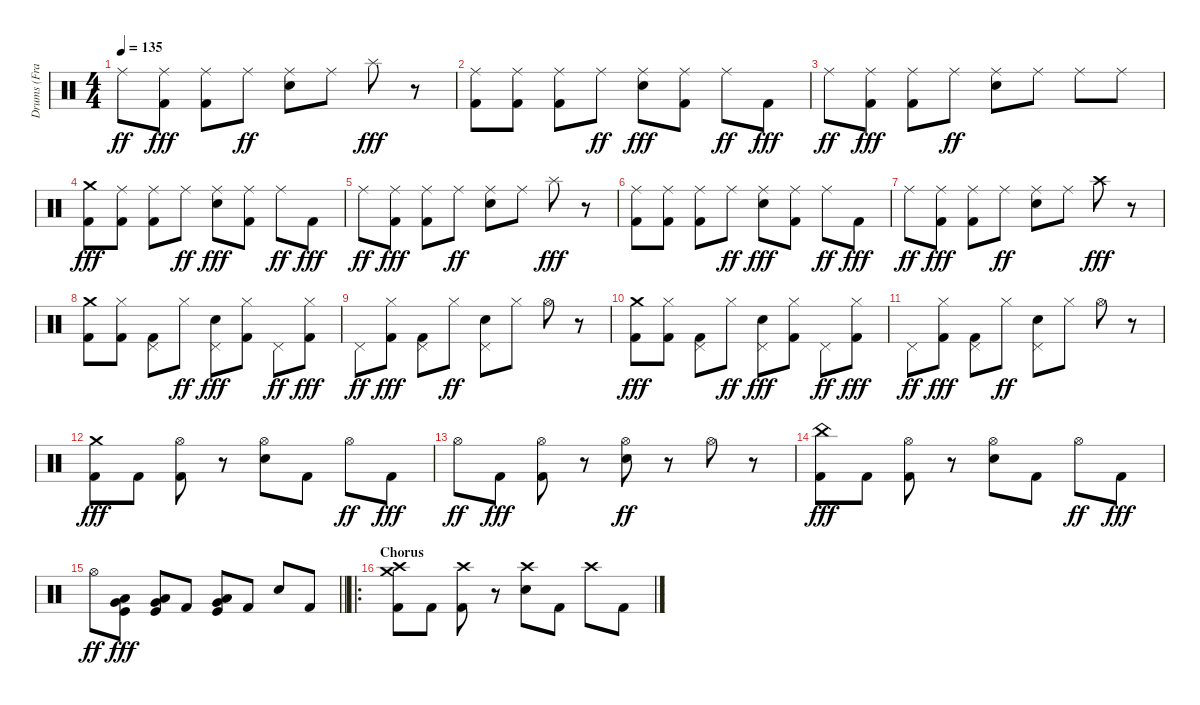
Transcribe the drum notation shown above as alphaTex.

\track ("Drums (Franky)" "Drums (Fra") {instrument percussion}
\staff {score}
\articulation defaults
\ts (4 4)
\tempo 135
\clef neutral
\ks c "Ride (middle)".8{dy ff}
("Ride (middle)" "Kick (hit) 2").8{dy fff} ("Ride (middle)" "Kick (hit) 2").8 "Ride (middle)".8{dy ff} ("Ride (middle)" "Electric Snare (hit)").8 "Ride (middle)".8 "Splash (hit)".8{dy fff} r.8 |
("Ride (middle)" "Kick (hit) 2").8 ("Ride (middle)" "Kick (hit) 2").8 ("Ride (middle)" "Kick (hit) 2").8 "Ride (middle)".8{dy ff} ("Ride (middle)" "Electric Snare (hit)").8{dy fff} ("Ride (middle)" "Kick (hit) 2").8 "Ride (middle)".8{dy ff} "Kick (hit) 2".8{dy fff} |
"Ride (middle)".8{dy ff} ("Ride (middle)" "Kick (hit) 2").8{dy fff} ("Ride (middle)" "Kick (hit) 2").8 "Ride (middle)".8{dy ff} ("Ride (middle)" "Electric Snare (hit)").8 "Ride (middle)".8 "Ride (middle)".8 "Ride (middle)".8 |
("Crash medium (hit)" "Kick (hit) 2").8{dy fff} ("Ride (middle)" "Kick (hit) 2").8 ("Ride (middle)" "Kick (hit) 2").8 "Ride (middle)".8{dy ff} ("Ride (middle)" "Electric Snare (hit)").8{dy fff} ("Ride (middle)" "Kick (hit) 2").8 "Ride (middle)".8{dy ff} "Kick (hit) 2".8{dy fff} |
"Ride (middle)".8{dy ff} ("Ride (middle)" "Kick (hit) 2").8{dy fff} ("Ride (middle)" "Kick (hit) 2").8 "Ride (middle)".8{dy ff} ("Ride (middle)" "Electric Snare (hit)").8 "Ride (middle)".8 "Splash (hit)".8{dy fff} r.8 |
("Ride (middle)" "Kick (hit) 2").8 ("Ride (middle)" "Kick (hit) 2").8 ("Ride (middle)" "Kick (hit) 2").8 "Ride (middle)".8{dy ff} ("Ride (middle)" "Electric Snare (hit)").8{dy fff} ("Ride (middle)" "Kick (hit) 2").8 "Ride (middle)".8{dy ff} "Kick (hit) 2".8{dy fff} |
"Ride (middle)".8{dy ff} ("Ride (middle)" "Kick (hit) 2").8{dy fff} ("Ride (middle)" "Kick (hit) 2").8 "Ride (middle)".8{dy ff} ("Ride (middle)" "Electric Snare (hit)").8 "Ride (middle)".8 "Crash high (hit)".8{dy fff} r.8 |
("Crash medium (hit)" "Kick (hit) 2").8 ("Hi-Hat (closed)" "Kick (hit) 2").8 ("Pedal Hi-Hat (hit)" "Kick (hit) 2").8 "Hi-Hat (closed)".8{dy ff} ("Pedal Hi-Hat (hit)" "Electric Snare (hit)").8{dy fff} ("Hi-Hat (closed)" "Kick (hit) 2").8 "Pedal Hi-Hat (hit)".8{dy ff} ("Hi-Hat (closed)" "Kick (hit) 2").8{dy fff} |
"Pedal Hi-Hat (hit)".8{dy ff} ("Hi-Hat (closed)" "Kick (hit) 2").8{dy fff} ("Pedal Hi-Hat (hit)" "Kick (hit) 2").8 "Hi-Hat (closed)".8{dy ff} ("Pedal Hi-Hat (hit)" "Electric Snare (hit)").8 "Hi-Hat (closed)".8 "Hi-Hat (open)".8 r.8 |
("Crash medium (hit)" "Kick (hit) 2").8{dy fff} ("Hi-Hat (closed)" "Kick (hit) 2").8 ("Pedal Hi-Hat (hit)" "Kick (hit) 2").8 "Hi-Hat (closed)".8{dy ff} ("Pedal Hi-Hat (hit)" "Electric Snare (hit)").8{dy fff} ("Hi-Hat (closed)" "Kick (hit) 2").8 "Pedal Hi-Hat (hit)".8{dy ff} ("Hi-Hat (closed)" "Kick (hit) 2").8{dy fff} |
"Pedal Hi-Hat (hit)".8{dy ff} ("Hi-Hat (closed)" "Kick (hit) 2").8{dy fff} ("Pedal Hi-Hat (hit)" "Kick (hit) 2").8 "Hi-Hat (closed)".8{dy ff} ("Pedal Hi-Hat (hit)" "Electric Snare (hit)").8 "Hi-Hat (closed)".8 "Hi-Hat (open)".8 r.8 |
("Crash medium (hit)" "Kick (hit) 2").8{dy fff} "Kick (hit) 2".8 ("Hi-Hat (open)" "Kick (hit) 2").8 r.8 ("Hi-Hat (open)" "Electric Snare (hit)").8 "Kick (hit) 2".8 "Hi-Hat (open)".8{dy ff} "Kick (hit) 2".8{dy fff} |
"Hi-Hat (open)".8{dy ff} "Kick (hit) 2".8{dy fff} ("Hi-Hat (open)" "Kick (hit) 2").8 r.8 ("Hi-Hat (open)" "Electric Snare (hit)").8{dy ff} r.8 "Hi-Hat (open)".8 r.8 |
("China (hit)" "Kick (hit) 2").8{dy fff} "Kick (hit) 2".8 ("Hi-Hat (open)" "Kick (hit) 2").8 r.8 ("Hi-Hat (open)" "Electric Snare (hit)").8 "Kick (hit) 2".8 "Hi-Hat (open)".8{dy ff} "Kick (hit) 2".8{dy fff} |
\barLineRight lightlight "Hi-Hat (open)".8{dy ff}
("Low Tom (hit)" "Very Low Tom (hit)" "Kick (hit)").8{dy fff} ("Low Tom (hit)" "Very Low Tom (hit)" "Kick (hit)").8 "Kick (hit) 2".8 ("Low Tom (hit)" "Very Low Tom (hit)" "Kick (hit)").8 "Kick (hit) 2".8 "Electric Snare (hit)".8 "Kick (hit) 2".8 |
\ro
\section ("" "Chorus")
("Crash medium (hit)" "Crash high (hit)" "Kick (hit) 2").8 "Kick (hit) 2".8 ("Crash high (hit)" "Kick (hit) 2").8 r.8 ("Crash high (hit)" "Electric Snare (hit)").8 "Kick (hit) 2".8 "Crash high (hit)".8 "Kick (hit) 2".8
